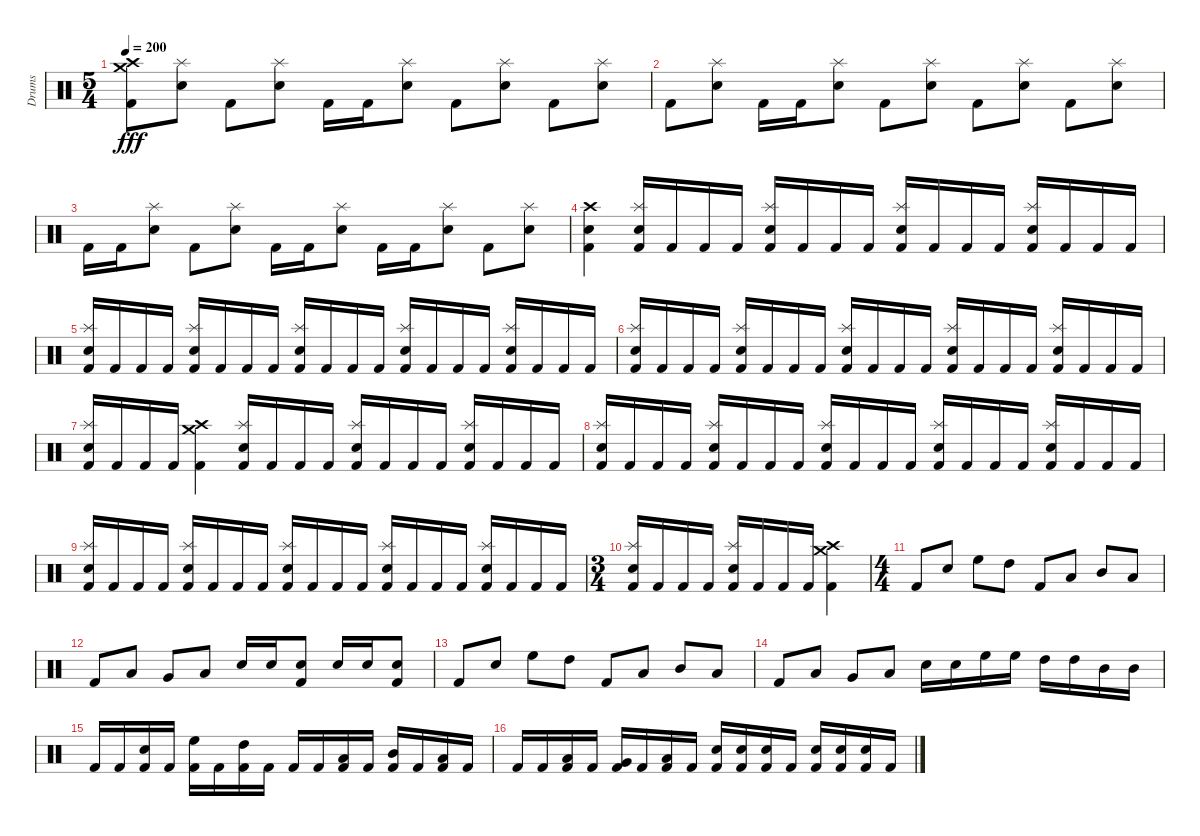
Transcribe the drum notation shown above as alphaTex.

\track ("Drums" "Drums") {instrument percussion}
\staff {score}
\articulation defaults
\ts (5 4)
\tempo 200
\clef neutral
\ks c
("Crash high (hit)" "Crash medium (hit)" "Kick (hit) 2").8{dy fff} ("Splash (hit)" "Snare (hit) 2").8 "Kick (hit) 2".8 ("Splash (hit)" "Snare (hit) 2").8 "Kick (hit) 2".16 "Kick (hit) 2".16 ("Splash (hit)" "Snare (hit) 2").8 "Kick (hit) 2".8 ("Splash (hit)" "Snare (hit) 2").8 "Kick (hit) 2".8 ("Splash (hit)" "Snare (hit) 2").8 |
"Kick (hit) 2".8 ("Splash (hit)" "Snare (hit) 2").8 "Kick (hit) 2".16 "Kick (hit) 2".16 ("Splash (hit)" "Snare (hit) 2").8 "Kick (hit) 2".8 ("Splash (hit)" "Snare (hit) 2").8 "Kick (hit) 2".8 ("Splash (hit)" "Snare (hit) 2").8 "Kick (hit) 2".8 ("Splash (hit)" "Snare (hit) 2").8 |
"Kick (hit) 2".16 "Kick (hit) 2".16 ("Splash (hit)" "Snare (hit) 2").8 "Kick (hit) 2".8 ("Splash (hit)" "Snare (hit) 2").8 "Kick (hit) 2".16 "Kick (hit) 2".16 ("Splash (hit)" "Snare (hit) 2").8 "Kick (hit) 2".16 "Kick (hit) 2".16 ("Splash (hit)" "Snare (hit) 2").8 "Kick (hit) 2".8 ("Splash (hit)" "Snare (hit) 2").8 |
("Crash high (hit)" "Snare (hit) 2" "Kick (hit) 2").4 ("Splash (hit)" "Snare (hit) 2" "Kick (hit) 2").16 "Kick (hit) 2".16 "Kick (hit) 2".16 "Kick (hit) 2".16 ("Splash (hit)" "Snare (hit) 2" "Kick (hit) 2").16 "Kick (hit) 2".16 "Kick (hit) 2".16 "Kick (hit) 2".16 ("Splash (hit)" "Snare (hit) 2" "Kick (hit) 2").16 "Kick (hit) 2".16 "Kick (hit) 2".16 "Kick (hit) 2".16 ("Splash (hit)" "Snare (hit) 2" "Kick (hit) 2").16 "Kick (hit) 2".16 "Kick (hit) 2".16 "Kick (hit) 2".16 |
("Splash (hit)" "Snare (hit) 2" "Kick (hit) 2").16 "Kick (hit) 2".16 "Kick (hit) 2".16 "Kick (hit) 2".16 ("Splash (hit)" "Snare (hit) 2" "Kick (hit) 2").16 "Kick (hit) 2".16 "Kick (hit) 2".16 "Kick (hit) 2".16 ("Splash (hit)" "Snare (hit) 2" "Kick (hit) 2").16 "Kick (hit) 2".16 "Kick (hit) 2".16 "Kick (hit) 2".16 ("Splash (hit)" "Snare (hit) 2" "Kick (hit) 2").16 "Kick (hit) 2".16 "Kick (hit) 2".16 "Kick (hit) 2".16 ("Splash (hit)" "Snare (hit) 2" "Kick (hit) 2").16 "Kick (hit) 2".16 "Kick (hit) 2".16 "Kick (hit) 2".16 |
("Splash (hit)" "Snare (hit) 2" "Kick (hit) 2").16 "Kick (hit) 2".16 "Kick (hit) 2".16 "Kick (hit) 2".16 ("Splash (hit)" "Snare (hit) 2" "Kick (hit) 2").16 "Kick (hit) 2".16 "Kick (hit) 2".16 "Kick (hit) 2".16 ("Splash (hit)" "Snare (hit) 2" "Kick (hit) 2").16 "Kick (hit) 2".16 "Kick (hit) 2".16 "Kick (hit) 2".16 ("Splash (hit)" "Snare (hit) 2" "Kick (hit) 2").16 "Kick (hit) 2".16 "Kick (hit) 2".16 "Kick (hit) 2".16 ("Splash (hit)" "Snare (hit) 2" "Kick (hit) 2").16 "Kick (hit) 2".16 "Kick (hit) 2".16 "Kick (hit) 2".16 |
("Splash (hit)" "Snare (hit) 2" "Kick (hit) 2").16 "Kick (hit) 2".16 "Kick (hit) 2".16 "Kick (hit) 2".16 ("Crash high (hit)" "Crash medium (hit)" "Kick (hit) 2").4 ("Splash (hit)" "Snare (hit) 2" "Kick (hit) 2").16 "Kick (hit) 2".16 "Kick (hit) 2".16 "Kick (hit) 2".16 ("Splash (hit)" "Snare (hit) 2" "Kick (hit) 2").16 "Kick (hit) 2".16 "Kick (hit) 2".16 "Kick (hit) 2".16 ("Splash (hit)" "Snare (hit) 2" "Kick (hit) 2").16 "Kick (hit) 2".16 "Kick (hit) 2".16 "Kick (hit) 2".16 |
("Splash (hit)" "Snare (hit) 2" "Kick (hit) 2").16 "Kick (hit) 2".16 "Kick (hit) 2".16 "Kick (hit) 2".16 ("Splash (hit)" "Snare (hit) 2" "Kick (hit) 2").16 "Kick (hit) 2".16 "Kick (hit) 2".16 "Kick (hit) 2".16 ("Splash (hit)" "Snare (hit) 2" "Kick (hit) 2").16 "Kick (hit) 2".16 "Kick (hit) 2".16 "Kick (hit) 2".16 ("Splash (hit)" "Snare (hit) 2" "Kick (hit) 2").16 "Kick (hit) 2".16 "Kick (hit) 2".16 "Kick (hit) 2".16 ("Splash (hit)" "Snare (hit) 2" "Kick (hit) 2").16 "Kick (hit) 2".16 "Kick (hit) 2".16 "Kick (hit) 2".16 |
("Splash (hit)" "Snare (hit) 2" "Kick (hit) 2").16 "Kick (hit) 2".16 "Kick (hit) 2".16 "Kick (hit) 2".16 ("Splash (hit)" "Snare (hit) 2" "Kick (hit) 2").16 "Kick (hit) 2".16 "Kick (hit) 2".16 "Kick (hit) 2".16 ("Splash (hit)" "Snare (hit) 2" "Kick (hit) 2").16 "Kick (hit) 2".16 "Kick (hit) 2".16 "Kick (hit) 2".16 ("Splash (hit)" "Snare (hit) 2" "Kick (hit) 2").16 "Kick (hit) 2".16 "Kick (hit) 2".16 "Kick (hit) 2".16 ("Splash (hit)" "Snare (hit) 2" "Kick (hit) 2").16 "Kick (hit) 2".16 "Kick (hit) 2".16 "Kick (hit) 2".16 |
\ts (3 4)
("Splash (hit)" "Snare (hit) 2" "Kick (hit) 2").16 "Kick (hit) 2".16 "Kick (hit) 2".16 "Kick (hit) 2".16 ("Splash (hit)" "Snare (hit) 2" "Kick (hit) 2").16 "Kick (hit) 2".16 "Kick (hit) 2".16 "Kick (hit) 2".16 ("Crash high (hit)" "Crash medium (hit)" "Kick (hit) 2").4 |
\ts (4 4)
"Kick (hit) 2".8 "Snare (hit) 2".8 "High Floor Tom (hit)".8 "High Tom (hit)".8 "Kick (hit) 2".8 "Low Tom (hit)".8 "Mid Tom (hit)".8 "Low Tom (hit)".8 |
"Kick (hit) 2".8 "Low Floor Tom (hit)".8 "Very Low Tom (hit)".8 "Low Floor Tom (hit)".8 "Snare (hit) 2".16 "Snare (hit) 2".16 ("Snare (hit) 2" "Kick (hit) 2").8 "Snare (hit) 2".16 "Snare (hit) 2".16 ("Snare (hit) 2" "Kick (hit) 2").8 |
"Kick (hit) 2".8 "Snare (hit) 2".8 "High Floor Tom (hit)".8 "High Tom (hit)".8 "Kick (hit) 2".8 "Low Tom (hit)".8 "Mid Tom (hit)".8 "Low Tom (hit)".8 |
"Kick (hit) 2".8 "Low Floor Tom (hit)".8 "Very Low Tom (hit)".8 "Low Floor Tom (hit)".8 "Snare (hit) 2".16 "Snare (hit) 2".16 "High Floor Tom (hit)".16 "High Floor Tom (hit)".16 "High Tom (hit)".16 "High Tom (hit)".16 "Mid Tom (hit)".16 "Mid Tom (hit)".16 |
"Kick (hit) 2".16 "Kick (hit) 2".16 ("Snare (hit) 2" "Kick (hit) 2").16 "Kick (hit) 2".16 ("High Floor Tom (hit)" "Kick (hit) 2").16 "Kick (hit) 2".16 ("High Tom (hit)" "Kick (hit) 2").16 "Kick (hit) 2".16 "Kick (hit) 2".16 "Kick (hit) 2".16 ("Low Tom (hit)" "Kick (hit) 2").16 "Kick (hit) 2".16 ("Mid Tom (hit)" "Kick (hit) 2").16 "Kick (hit) 2".16 ("Low Tom (hit)" "Kick (hit) 2").16 "Kick (hit) 2".16 |
"Kick (hit) 2".16 "Kick (hit) 2".16 ("Low Floor Tom (hit)" "Kick (hit) 2").16 "Kick (hit) 2".16 ("Very Low Tom (hit)" "Kick (hit) 2").16 "Kick (hit) 2".16 ("Low Floor Tom (hit)" "Kick (hit) 2").16 "Kick (hit) 2".16 ("Snare (hit) 2" "Kick (hit) 2").16 ("Snare (hit) 2" "Kick (hit) 2").16 ("Snare (hit) 2" "Kick (hit) 2").16 "Kick (hit) 2".16 ("Snare (hit) 2" "Kick (hit) 2").16 ("Snare (hit) 2" "Kick (hit) 2").16 ("Snare (hit) 2" "Kick (hit) 2").16 "Kick (hit) 2".16
